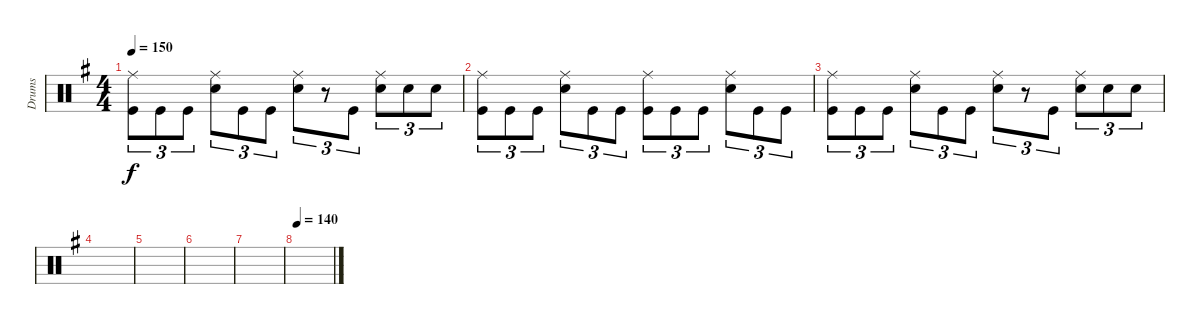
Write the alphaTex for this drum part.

\track ("Drums" "Drums") {instrument percussion}
\staff {score}
\articulation defaults
\ts (4 4)
\tempo 150
\clef neutral
\ks g
("Ride (middle)" "Kick (hit)").8{tu (3 2) dy f} "Kick (hit)".8{tu (3 2)} "Kick (hit)".8{tu (3 2)} ("Ride (middle)" "Snare (hit) 2").8{tu (3 2)} "Kick (hit)".8{tu (3 2)} "Kick (hit)".8{tu (3 2)} ("Ride (middle)" "Snare (hit) 2").8{tu (3 2)} r.8{tu (3 2)} "Kick (hit)".8{tu (3 2)} ("Ride (middle)" "Snare (hit) 2").8{tu (3 2)} "Snare (hit) 2".8{tu (3 2)} "Snare (hit) 2".8{tu (3 2)} |
("Ride (middle)" "Kick (hit)").8{tu (3 2)} "Kick (hit)".8{tu (3 2)} "Kick (hit)".8{tu (3 2)} ("Ride (middle)" "Snare (hit) 2").8{tu (3 2)} "Kick (hit)".8{tu (3 2)} "Kick (hit)".8{tu (3 2)} ("Ride (middle)" "Kick (hit)").8{tu (3 2)} "Kick (hit)".8{tu (3 2)} "Kick (hit)".8{tu (3 2)} ("Ride (middle)" "Snare (hit) 2").8{tu (3 2)} "Kick (hit)".8{tu (3 2)} "Kick (hit)".8{tu (3 2)} |
("Ride (middle)" "Kick (hit)").8{tu (3 2)} "Kick (hit)".8{tu (3 2)} "Kick (hit)".8{tu (3 2)} ("Ride (middle)" "Snare (hit) 2").8{tu (3 2)} "Kick (hit)".8{tu (3 2)} "Kick (hit)".8{tu (3 2)} ("Ride (middle)" "Snare (hit) 2").8{tu (3 2)} r.8{tu (3 2)} "Kick (hit)".8{tu (3 2)} ("Ride (middle)" "Snare (hit) 2").8{tu (3 2)} "Snare (hit) 2".8{tu (3 2)} "Snare (hit) 2".8{tu (3 2)} |
|
|
|
|
\tempo 140
